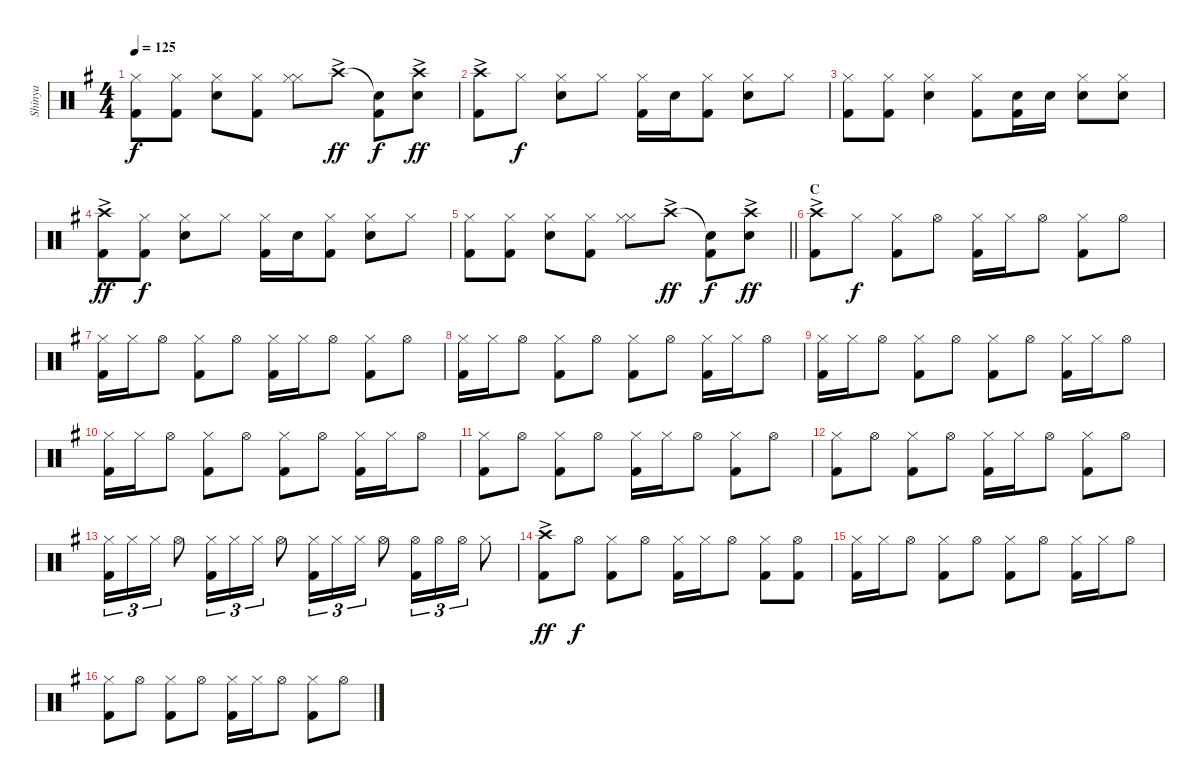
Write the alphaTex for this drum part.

\track ("Shinya" "Shinya") {instrument percussion}
\staff {score}
\articulation defaults
\ts (4 4)
\tempo 125
\clef neutral
\ks g
("Hi-Hat (closed)" "Kick (hit) 2").8{dy f} ("Hi-Hat (closed)" "Kick (hit) 2").8 ("Hi-Hat (closed)" "Snare (hit) 2").8 ("Hi-Hat (closed)" "Kick (hit) 2").8 ("Hi-Hat (closed)" "Hi-Hat (closed)").8 "Crash high (hit)"{ac}.8{dy ff} ("Snare (hit)"{t} "Kick (hit) 2").8{dy f} ("Crash high (hit)"{ac} "Snare (hit) 2").8{dy ff} |
("Crash high (hit)"{ac} "Kick (hit) 2").8 "Hi-Hat (closed)".8{dy f} ("Hi-Hat (closed)" "Snare (hit) 2").8 "Hi-Hat (closed)".8 ("Hi-Hat (closed)" "Kick (hit) 2").16 "Snare (hit) 2".16 ("Hi-Hat (closed)" "Kick (hit) 2").8 ("Hi-Hat (closed)" "Snare (hit) 2").8 "Hi-Hat (closed)".8 |
("Hi-Hat (closed)" "Kick (hit) 2").8 ("Hi-Hat (closed)" "Kick (hit) 2").8 ("Hi-Hat (closed)" "Snare (hit) 2").4 ("Hi-Hat (closed)" "Kick (hit) 2").8 ("Snare (hit) 2" "Kick (hit) 2").16 "Snare (hit) 2".16 ("Hi-Hat (closed)" "Snare (hit) 2").8 ("Hi-Hat (closed)" "Snare (hit) 2").8 |
("Crash high (hit)"{ac} "Kick (hit) 2").8{dy ff} ("Hi-Hat (closed)" "Kick (hit) 2").8{dy f} ("Hi-Hat (closed)" "Snare (hit) 2").8 "Hi-Hat (closed)".8 ("Hi-Hat (closed)" "Kick (hit) 2").16 "Snare (hit) 2".16 ("Hi-Hat (closed)" "Kick (hit) 2").8 ("Hi-Hat (closed)" "Snare (hit) 2").8 "Hi-Hat (closed)".8 |
\barLineRight lightlight
("Hi-Hat (closed)" "Kick (hit) 2").8 ("Hi-Hat (closed)" "Kick (hit) 2").8 ("Hi-Hat (closed)" "Snare (hit) 2").8 ("Hi-Hat (closed)" "Kick (hit) 2").8 ("Hi-Hat (closed)" "Hi-Hat (closed)").8 "Crash high (hit)"{ac}.8{dy ff} ("Snare (hit)"{t} "Kick (hit) 2").8{dy f} ("Crash high (hit)"{ac} "Snare (hit) 2").8{dy ff} |
\section ("" "C")
("Crash high (hit)"{ac} "Kick (hit) 2").8 "Hi-Hat (closed)".8{dy f} ("Hi-Hat (closed)" "Kick (hit) 2").8 "Hi-Hat (open)".8 ("Hi-Hat (closed)" "Kick (hit) 2").16 "Hi-Hat (closed)".16 "Hi-Hat (open)".8 ("Hi-Hat (closed)" "Kick (hit) 2").8 "Hi-Hat (open)".8 |
("Hi-Hat (closed)" "Kick (hit) 2").16 "Hi-Hat (closed)".16 "Hi-Hat (open)".8 ("Hi-Hat (closed)" "Kick (hit) 2").8 "Hi-Hat (open)".8 ("Hi-Hat (closed)" "Kick (hit) 2").16 "Hi-Hat (closed)".16 "Hi-Hat (open)".8 ("Hi-Hat (closed)" "Kick (hit) 2").8 "Hi-Hat (open)".8 |
("Hi-Hat (closed)" "Kick (hit) 2").16 "Hi-Hat (closed)".16 "Hi-Hat (open)".8 ("Hi-Hat (closed)" "Kick (hit) 2").8 "Hi-Hat (open)".8 ("Hi-Hat (closed)" "Kick (hit) 2").8 "Hi-Hat (open)".8 ("Hi-Hat (closed)" "Kick (hit) 2").16 "Hi-Hat (closed)".16 "Hi-Hat (open)".8 |
("Hi-Hat (closed)" "Kick (hit) 2").16 "Hi-Hat (closed)".16 "Hi-Hat (open)".8 ("Hi-Hat (closed)" "Kick (hit) 2").8 "Hi-Hat (open)".8 ("Hi-Hat (closed)" "Kick (hit) 2").8 "Hi-Hat (open)".8 ("Hi-Hat (closed)" "Kick (hit) 2").16 "Hi-Hat (closed)".16 "Hi-Hat (open)".8 |
("Hi-Hat (closed)" "Kick (hit) 2").16 "Hi-Hat (closed)".16 "Hi-Hat (open)".8 ("Hi-Hat (closed)" "Kick (hit) 2").8 "Hi-Hat (open)".8 ("Hi-Hat (closed)" "Kick (hit) 2").8 "Hi-Hat (open)".8 ("Hi-Hat (closed)" "Kick (hit) 2").16 "Hi-Hat (closed)".16 "Hi-Hat (open)".8 |
("Hi-Hat (closed)" "Kick (hit) 2").8 "Hi-Hat (open)".8 ("Hi-Hat (closed)" "Kick (hit) 2").8 "Hi-Hat (open)".8 ("Hi-Hat (closed)" "Kick (hit) 2").16 "Hi-Hat (closed)".16 "Hi-Hat (open)".8 ("Hi-Hat (closed)" "Kick (hit) 2").8 "Hi-Hat (open)".8 |
("Hi-Hat (closed)" "Kick (hit) 2").8 "Hi-Hat (open)".8 ("Hi-Hat (closed)" "Kick (hit) 2").8 "Hi-Hat (open)".8 ("Hi-Hat (closed)" "Kick (hit) 2").16 "Hi-Hat (closed)".16 "Hi-Hat (open)".8 ("Hi-Hat (closed)" "Kick (hit) 2").8 "Hi-Hat (open)".8 |
("Hi-Hat (closed)" "Kick (hit) 2").16{tu (3 2)} "Hi-Hat (closed)".16{tu (3 2)} "Hi-Hat (closed)".16{tu (3 2)} "Hi-Hat (open)".8 ("Hi-Hat (closed)" "Kick (hit) 2").16{tu (3 2)} "Hi-Hat (closed)".16{tu (3 2)} "Hi-Hat (closed)".16{tu (3 2)} "Hi-Hat (open)".8 ("Hi-Hat (closed)" "Kick (hit) 2").16{tu (3 2)} "Hi-Hat (closed)".16{tu (3 2)} "Hi-Hat (closed)".16{tu (3 2)} "Hi-Hat (open)".8 ("Hi-Hat (open)" "Kick (hit) 2").16{tu (3 2)} "Hi-Hat (open)".16{tu (3 2)} "Hi-Hat (open)".16{tu (3 2)} "Hi-Hat (closed)".8 |
("Crash high (hit)"{ac} "Kick (hit) 2").8{dy ff} "Hi-Hat (open)".8{dy f} ("Hi-Hat (closed)" "Kick (hit) 2").8 "Hi-Hat (open)".8 ("Hi-Hat (closed)" "Kick (hit) 2").16 "Hi-Hat (closed)".16 "Hi-Hat (open)".8 ("Hi-Hat (closed)" "Kick (hit) 2").8 ("Hi-Hat (open)" "Kick (hit) 2").8 |
("Hi-Hat (closed)" "Kick (hit) 2").16 "Hi-Hat (closed)".16 "Hi-Hat (open)".8 ("Hi-Hat (closed)" "Kick (hit) 2").8 "Hi-Hat (open)".8 ("Hi-Hat (closed)" "Kick (hit) 2").8 "Hi-Hat (open)".8 ("Hi-Hat (closed)" "Kick (hit) 2").16 "Hi-Hat (closed)".16 "Hi-Hat (open)".8 |
("Hi-Hat (closed)" "Kick (hit) 2").8 "Hi-Hat (open)".8 ("Hi-Hat (closed)" "Kick (hit) 2").8 "Hi-Hat (open)".8 ("Hi-Hat (closed)" "Kick (hit) 2").16 "Hi-Hat (closed)".16 "Hi-Hat (open)".8 ("Hi-Hat (closed)" "Kick (hit) 2").8 "Hi-Hat (open)".8
